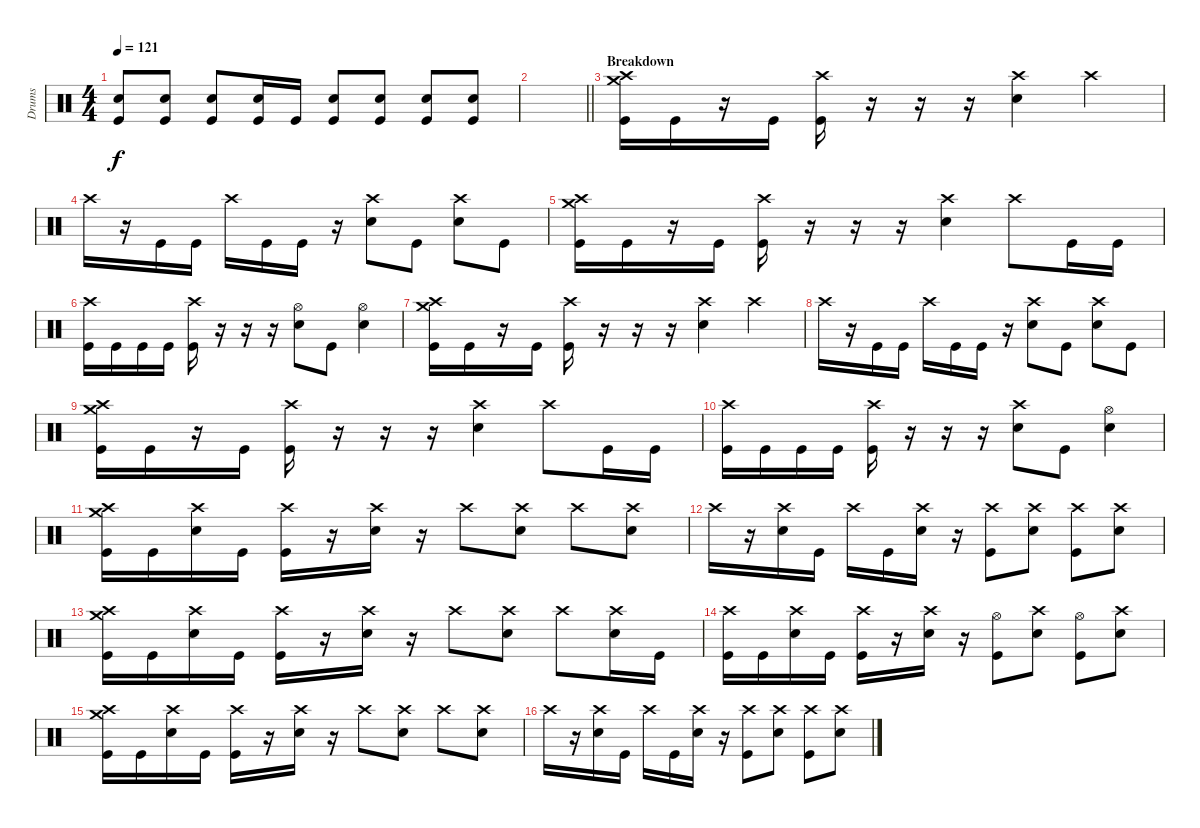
\track ("Drums" "Drums") {instrument percussion}
\staff {score}
\articulation defaults
\ts (4 4)
\tempo 121
\clef neutral
\ks c
("Electric Snare (hit)" "Kick (hit)").8{dy f} ("Electric Snare (hit)" "Kick (hit)").8 ("Electric Snare (hit)" "Kick (hit)").8 ("Electric Snare (hit)" "Kick (hit)").16 "Kick (hit)".16 ("Electric Snare (hit)" "Kick (hit)").8 ("Electric Snare (hit)" "Kick (hit)").8 ("Electric Snare (hit)" "Kick (hit)").8 ("Electric Snare (hit)" "Kick (hit)").8 |
\barLineRight lightlight
|
\section ("" "Breakdown")
("Crash high (hit)" "Crash medium (hit)" "Kick (hit)").16 "Kick (hit)".16 r.16 "Kick (hit)".16 ("Crash high (hit)" "Kick (hit)").16 r.16 r.16 r.16 ("Crash high (hit)" "Electric Snare (hit)").4 "Crash high (hit)".4 |
"Crash high (hit)".16 r.16 "Kick (hit)".16 "Kick (hit)".16 "Crash high (hit)".16 "Kick (hit)".16 "Kick (hit)".16 r.16 ("Crash high (hit)" "Electric Snare (hit)").8 "Kick (hit)".8 ("Crash high (hit)" "Electric Snare (hit)").8 "Kick (hit)".8 |
("Crash high (hit)" "Crash medium (hit)" "Kick (hit)").16 "Kick (hit)".16 r.16 "Kick (hit)".16 ("Crash high (hit)" "Kick (hit)").16 r.16 r.16 r.16 ("Crash high (hit)" "Electric Snare (hit)").4 "Crash high (hit)".8 "Kick (hit)".16 "Kick (hit)".16 |
("Crash high (hit)" "Kick (hit)").16 "Kick (hit)".16 "Kick (hit)".16 "Kick (hit)".16 ("Crash high (hit)" "Kick (hit)").16 r.16 r.16 r.16 ("Hi-Hat (open)" "Electric Snare (hit)").8 "Kick (hit)".8 ("Hi-Hat (open)" "Electric Snare (hit)").4 |
("Crash high (hit)" "Crash medium (hit)" "Kick (hit)").16 "Kick (hit)".16 r.16 "Kick (hit)".16 ("Crash high (hit)" "Kick (hit)").16 r.16 r.16 r.16 ("Crash high (hit)" "Electric Snare (hit)").4 "Crash high (hit)".4 |
"Crash high (hit)".16 r.16 "Kick (hit)".16 "Kick (hit)".16 "Crash high (hit)".16 "Kick (hit)".16 "Kick (hit)".16 r.16 ("Crash high (hit)" "Electric Snare (hit)").8 "Kick (hit)".8 ("Crash high (hit)" "Electric Snare (hit)").8 "Kick (hit)".8 |
("Crash high (hit)" "Crash medium (hit)" "Kick (hit)").16 "Kick (hit)".16 r.16 "Kick (hit)".16 ("Crash high (hit)" "Kick (hit)").16 r.16 r.16 r.16 ("Crash high (hit)" "Electric Snare (hit)").4 "Crash high (hit)".8 "Kick (hit)".16 "Kick (hit)".16 |
("Crash high (hit)" "Kick (hit)").16 "Kick (hit)".16 "Kick (hit)".16 "Kick (hit)".16 ("Crash high (hit)" "Kick (hit)").16 r.16 r.16 r.16 ("Crash high (hit)" "Electric Snare (hit)").8 "Kick (hit)".8 ("Hi-Hat (open)" "Electric Snare (hit)").4 |
("Crash high (hit)" "Crash medium (hit)" "Kick (hit)").16 "Kick (hit)".16 ("Crash high (hit)" "Electric Snare (hit)").16 "Kick (hit)".16 ("Crash high (hit)" "Kick (hit)").16 r.16 ("Crash high (hit)" "Electric Snare (hit)").16 r.16 "Crash high (hit)".8 ("Crash high (hit)" "Electric Snare (hit)").8 "Crash high (hit)".8 ("Crash high (hit)" "Electric Snare (hit)").8 |
"Crash high (hit)".16 r.16 ("Crash high (hit)" "Electric Snare (hit)").16 "Kick (hit)".16 "Crash high (hit)".16 "Kick (hit)".16 ("Crash high (hit)" "Electric Snare (hit)").16 r.16 ("Crash high (hit)" "Kick (hit)").8 ("Crash high (hit)" "Electric Snare (hit)").8 ("Crash high (hit)" "Kick (hit)").8 ("Crash high (hit)" "Electric Snare (hit)").8 |
("Crash high (hit)" "Crash medium (hit)" "Kick (hit)").16 "Kick (hit)".16 ("Crash high (hit)" "Electric Snare (hit)").16 "Kick (hit)".16 ("Crash high (hit)" "Kick (hit)").16 r.16 ("Crash high (hit)" "Electric Snare (hit)").16 r.16 "Crash high (hit)".8 ("Crash high (hit)" "Electric Snare (hit)").8 "Crash high (hit)".8 ("Crash high (hit)" "Electric Snare (hit)").16 "Kick (hit)".16 |
("Crash high (hit)" "Kick (hit)").16 "Kick (hit)".16 ("Crash high (hit)" "Electric Snare (hit)").16 "Kick (hit)".16 ("Crash high (hit)" "Kick (hit)").16 r.16 ("Crash high (hit)" "Electric Snare (hit)").16 r.16 ("Hi-Hat (open)" "Kick (hit)").8 ("Crash high (hit)" "Electric Snare (hit)").8 ("Hi-Hat (open)" "Kick (hit)").8 ("Crash high (hit)" "Electric Snare (hit)").8 |
("Crash high (hit)" "Crash medium (hit)" "Kick (hit)").16 "Kick (hit)".16 ("Crash high (hit)" "Electric Snare (hit)").16 "Kick (hit)".16 ("Crash high (hit)" "Kick (hit)").16 r.16 ("Crash high (hit)" "Electric Snare (hit)").16 r.16 "Crash high (hit)".8 ("Crash high (hit)" "Electric Snare (hit)").8 "Crash high (hit)".8 ("Crash high (hit)" "Electric Snare (hit)").8 |
"Crash high (hit)".16 r.16 ("Crash high (hit)" "Electric Snare (hit)").16 "Kick (hit)".16 "Crash high (hit)".16 "Kick (hit)".16 ("Crash high (hit)" "Electric Snare (hit)").16 r.16 ("Crash high (hit)" "Kick (hit)").8 ("Crash high (hit)" "Electric Snare (hit)").8 ("Crash high (hit)" "Kick (hit)").8 ("Crash high (hit)" "Electric Snare (hit)").8
